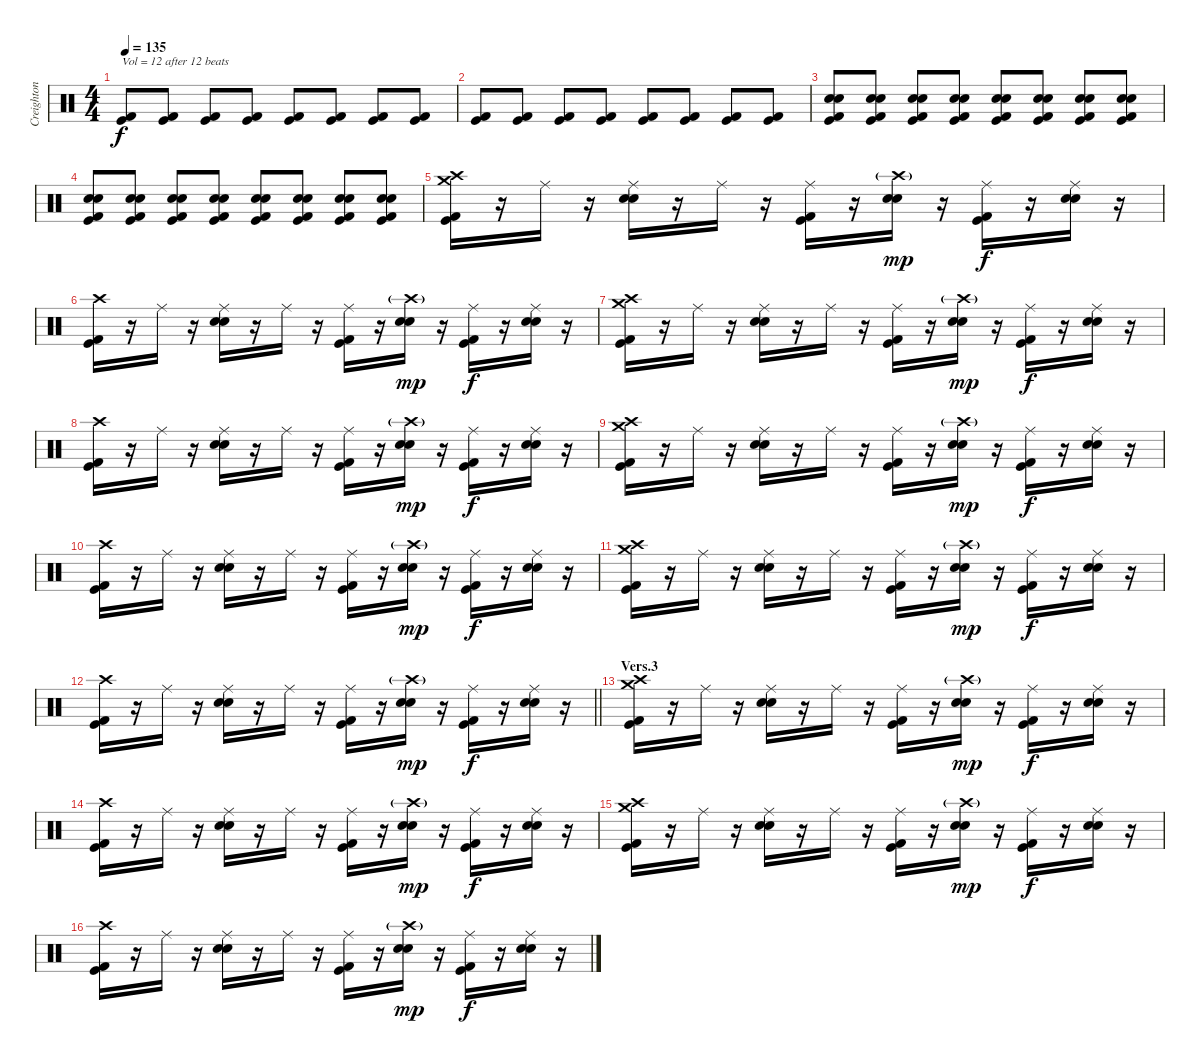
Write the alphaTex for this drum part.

\track ("Creighton Barrett (Drums)" "Creighton ") {instrument percussion}
\staff {score}
\articulation defaults
\ts (4 4)
\tempo 135
\clef neutral
\ks c
("Kick (hit)" "Kick (hit) 2").8{txt "Vol = 12 after 12 beats" dy f volume 8} ("Kick (hit)" "Kick (hit) 2").8 ("Kick (hit)" "Kick (hit) 2").8 ("Kick (hit)" "Kick (hit) 2").8 ("Kick (hit)" "Kick (hit) 2").8 ("Kick (hit)" "Kick (hit) 2").8 ("Kick (hit)" "Kick (hit) 2").8 ("Kick (hit)" "Kick (hit) 2").8 |
("Kick (hit)" "Kick (hit) 2").8 ("Kick (hit)" "Kick (hit) 2").8 ("Kick (hit)" "Kick (hit) 2").8 ("Kick (hit)" "Kick (hit) 2").8 ("Kick (hit)" "Kick (hit) 2").8 ("Kick (hit)" "Kick (hit) 2").8 ("Kick (hit)" "Kick (hit) 2").8 ("Kick (hit)" "Kick (hit) 2").8 |
("Electric Snare (hit)" "Snare (hit) 2" "Kick (hit)" "Kick (hit) 2").8 ("Electric Snare (hit)" "Snare (hit) 2" "Kick (hit)" "Kick (hit) 2").8 ("Electric Snare (hit)" "Snare (hit) 2" "Kick (hit)" "Kick (hit) 2").8 ("Electric Snare (hit)" "Snare (hit) 2" "Kick (hit)" "Kick (hit) 2").8 ("Electric Snare (hit)" "Snare (hit) 2" "Kick (hit)" "Kick (hit) 2").8 ("Electric Snare (hit)" "Snare (hit) 2" "Kick (hit)" "Kick (hit) 2").8 ("Electric Snare (hit)" "Snare (hit) 2" "Kick (hit)" "Kick (hit) 2").8 ("Electric Snare (hit)" "Snare (hit) 2" "Kick (hit)" "Kick (hit) 2").8 |
("Electric Snare (hit)" "Snare (hit) 2" "Kick (hit)" "Kick (hit) 2").8 ("Electric Snare (hit)" "Snare (hit) 2" "Kick (hit)" "Kick (hit) 2").8 ("Electric Snare (hit)" "Snare (hit) 2" "Kick (hit)" "Kick (hit) 2").8 ("Electric Snare (hit)" "Snare (hit) 2" "Kick (hit)" "Kick (hit) 2").8 ("Electric Snare (hit)" "Snare (hit) 2" "Kick (hit)" "Kick (hit) 2").8 ("Electric Snare (hit)" "Snare (hit) 2" "Kick (hit)" "Kick (hit) 2").8 ("Electric Snare (hit)" "Snare (hit) 2" "Kick (hit)" "Kick (hit) 2").8 ("Electric Snare (hit)" "Snare (hit) 2" "Kick (hit)" "Kick (hit) 2").8 |
("Crash high (hit)" "Crash medium (hit)" "Kick (hit)" "Kick (hit) 2").16 r.16 "Ride (middle)".16 r.16 ("Ride (middle)" "Electric Snare (hit)" "Snare (hit) 2").16 r.16 "Ride (middle)".16 r.16 ("Ride (middle)" "Kick (hit)" "Kick (hit) 2").16 r.16 ("Crash high (hit)"{g} "Electric Snare (hit)" "Snare (hit) 2").16{dy mp} r.16 ("Ride (middle)" "Kick (hit)" "Kick (hit) 2").16{dy f} r.16 ("Ride (middle)" "Electric Snare (hit)" "Snare (hit) 2").16 r.16 |
("Crash high (hit)" "Kick (hit)" "Kick (hit) 2").16 r.16 "Ride (middle)".16 r.16 ("Ride (middle)" "Electric Snare (hit)" "Snare (hit) 2").16 r.16 "Ride (middle)".16 r.16 ("Ride (middle)" "Kick (hit)" "Kick (hit) 2").16 r.16 ("Crash high (hit)"{g} "Electric Snare (hit)" "Snare (hit) 2").16{dy mp} r.16 ("Ride (middle)" "Kick (hit)" "Kick (hit) 2").16{dy f} r.16 ("Ride (middle)" "Electric Snare (hit)" "Snare (hit) 2").16 r.16 |
("Crash high (hit)" "Crash medium (hit)" "Kick (hit)" "Kick (hit) 2").16 r.16 "Ride (middle)".16 r.16 ("Ride (middle)" "Electric Snare (hit)" "Snare (hit) 2").16 r.16 "Ride (middle)".16 r.16 ("Ride (middle)" "Kick (hit)" "Kick (hit) 2").16 r.16 ("Crash high (hit)"{g} "Electric Snare (hit)" "Snare (hit) 2").16{dy mp} r.16 ("Ride (middle)" "Kick (hit)" "Kick (hit) 2").16{dy f} r.16 ("Ride (middle)" "Electric Snare (hit)" "Snare (hit) 2").16 r.16 |
("Crash high (hit)" "Kick (hit)" "Kick (hit) 2").16 r.16 "Ride (middle)".16 r.16 ("Ride (middle)" "Electric Snare (hit)" "Snare (hit) 2").16 r.16 "Ride (middle)".16 r.16 ("Ride (middle)" "Kick (hit)" "Kick (hit) 2").16 r.16 ("Crash high (hit)"{g} "Electric Snare (hit)" "Snare (hit) 2").16{dy mp} r.16 ("Ride (middle)" "Kick (hit)" "Kick (hit) 2").16{dy f} r.16 ("Ride (middle)" "Electric Snare (hit)" "Snare (hit) 2").16 r.16 |
("Crash high (hit)" "Crash medium (hit)" "Kick (hit)" "Kick (hit) 2").16 r.16 "Ride (middle)".16 r.16 ("Ride (middle)" "Electric Snare (hit)" "Snare (hit) 2").16 r.16 "Ride (middle)".16 r.16 ("Ride (middle)" "Kick (hit)" "Kick (hit) 2").16 r.16 ("Crash high (hit)"{g} "Electric Snare (hit)" "Snare (hit) 2").16{dy mp} r.16 ("Ride (middle)" "Kick (hit)" "Kick (hit) 2").16{dy f} r.16 ("Ride (middle)" "Electric Snare (hit)" "Snare (hit) 2").16 r.16 |
("Crash high (hit)" "Kick (hit)" "Kick (hit) 2").16 r.16 "Ride (middle)".16 r.16 ("Ride (middle)" "Electric Snare (hit)" "Snare (hit) 2").16 r.16 "Ride (middle)".16 r.16 ("Ride (middle)" "Kick (hit)" "Kick (hit) 2").16 r.16 ("Crash high (hit)"{g} "Electric Snare (hit)" "Snare (hit) 2").16{dy mp} r.16 ("Ride (middle)" "Kick (hit)" "Kick (hit) 2").16{dy f} r.16 ("Ride (middle)" "Electric Snare (hit)" "Snare (hit) 2").16 r.16 |
("Crash high (hit)" "Crash medium (hit)" "Kick (hit)" "Kick (hit) 2").16 r.16 "Ride (middle)".16 r.16 ("Ride (middle)" "Electric Snare (hit)" "Snare (hit) 2").16 r.16 "Ride (middle)".16 r.16 ("Ride (middle)" "Kick (hit)" "Kick (hit) 2").16 r.16 ("Crash high (hit)"{g} "Electric Snare (hit)" "Snare (hit) 2").16{dy mp} r.16 ("Ride (middle)" "Kick (hit)" "Kick (hit) 2").16{dy f} r.16 ("Ride (middle)" "Electric Snare (hit)" "Snare (hit) 2").16 r.16 |
\barLineRight lightlight
("Crash high (hit)" "Kick (hit)" "Kick (hit) 2").16 r.16 "Ride (middle)".16 r.16 ("Ride (middle)" "Electric Snare (hit)" "Snare (hit) 2").16 r.16 "Ride (middle)".16 r.16 ("Ride (middle)" "Kick (hit)" "Kick (hit) 2").16 r.16 ("Crash high (hit)"{g} "Electric Snare (hit)" "Snare (hit) 2").16{dy mp} r.16 ("Ride (middle)" "Kick (hit)" "Kick (hit) 2").16{dy f} r.16 ("Ride (middle)" "Electric Snare (hit)" "Snare (hit) 2").16 r.16 |
\section ("" "Vers.3")
("Crash high (hit)" "Crash medium (hit)" "Kick (hit)" "Kick (hit) 2").16 r.16 "Ride (middle)".16 r.16 ("Ride (middle)" "Electric Snare (hit)" "Snare (hit) 2").16 r.16 "Ride (middle)".16 r.16 ("Ride (middle)" "Kick (hit)" "Kick (hit) 2").16 r.16 ("Crash high (hit)"{g} "Electric Snare (hit)" "Snare (hit) 2").16{dy mp} r.16 ("Ride (middle)" "Kick (hit)" "Kick (hit) 2").16{dy f} r.16 ("Ride (middle)" "Electric Snare (hit)" "Snare (hit) 2").16 r.16 |
("Crash high (hit)" "Kick (hit)" "Kick (hit) 2").16 r.16 "Ride (middle)".16 r.16 ("Ride (middle)" "Electric Snare (hit)" "Snare (hit) 2").16 r.16 "Ride (middle)".16 r.16 ("Ride (middle)" "Kick (hit)" "Kick (hit) 2").16 r.16 ("Crash high (hit)"{g} "Electric Snare (hit)" "Snare (hit) 2").16{dy mp} r.16 ("Ride (middle)" "Kick (hit)" "Kick (hit) 2").16{dy f} r.16 ("Ride (middle)" "Electric Snare (hit)" "Snare (hit) 2").16 r.16 |
("Crash high (hit)" "Crash medium (hit)" "Kick (hit)" "Kick (hit) 2").16 r.16 "Ride (middle)".16 r.16 ("Ride (middle)" "Electric Snare (hit)" "Snare (hit) 2").16 r.16 "Ride (middle)".16 r.16 ("Ride (middle)" "Kick (hit)" "Kick (hit) 2").16 r.16 ("Crash high (hit)"{g} "Electric Snare (hit)" "Snare (hit) 2").16{dy mp} r.16 ("Ride (middle)" "Kick (hit)" "Kick (hit) 2").16{dy f} r.16 ("Ride (middle)" "Electric Snare (hit)" "Snare (hit) 2").16 r.16 |
("Crash high (hit)" "Kick (hit)" "Kick (hit) 2").16 r.16 "Ride (middle)".16 r.16 ("Ride (middle)" "Electric Snare (hit)" "Snare (hit) 2").16 r.16 "Ride (middle)".16 r.16 ("Ride (middle)" "Kick (hit)" "Kick (hit) 2").16 r.16 ("Crash high (hit)"{g} "Electric Snare (hit)" "Snare (hit) 2").16{dy mp} r.16 ("Ride (middle)" "Kick (hit)" "Kick (hit) 2").16{dy f} r.16 ("Ride (middle)" "Electric Snare (hit)" "Snare (hit) 2").16 r.16
